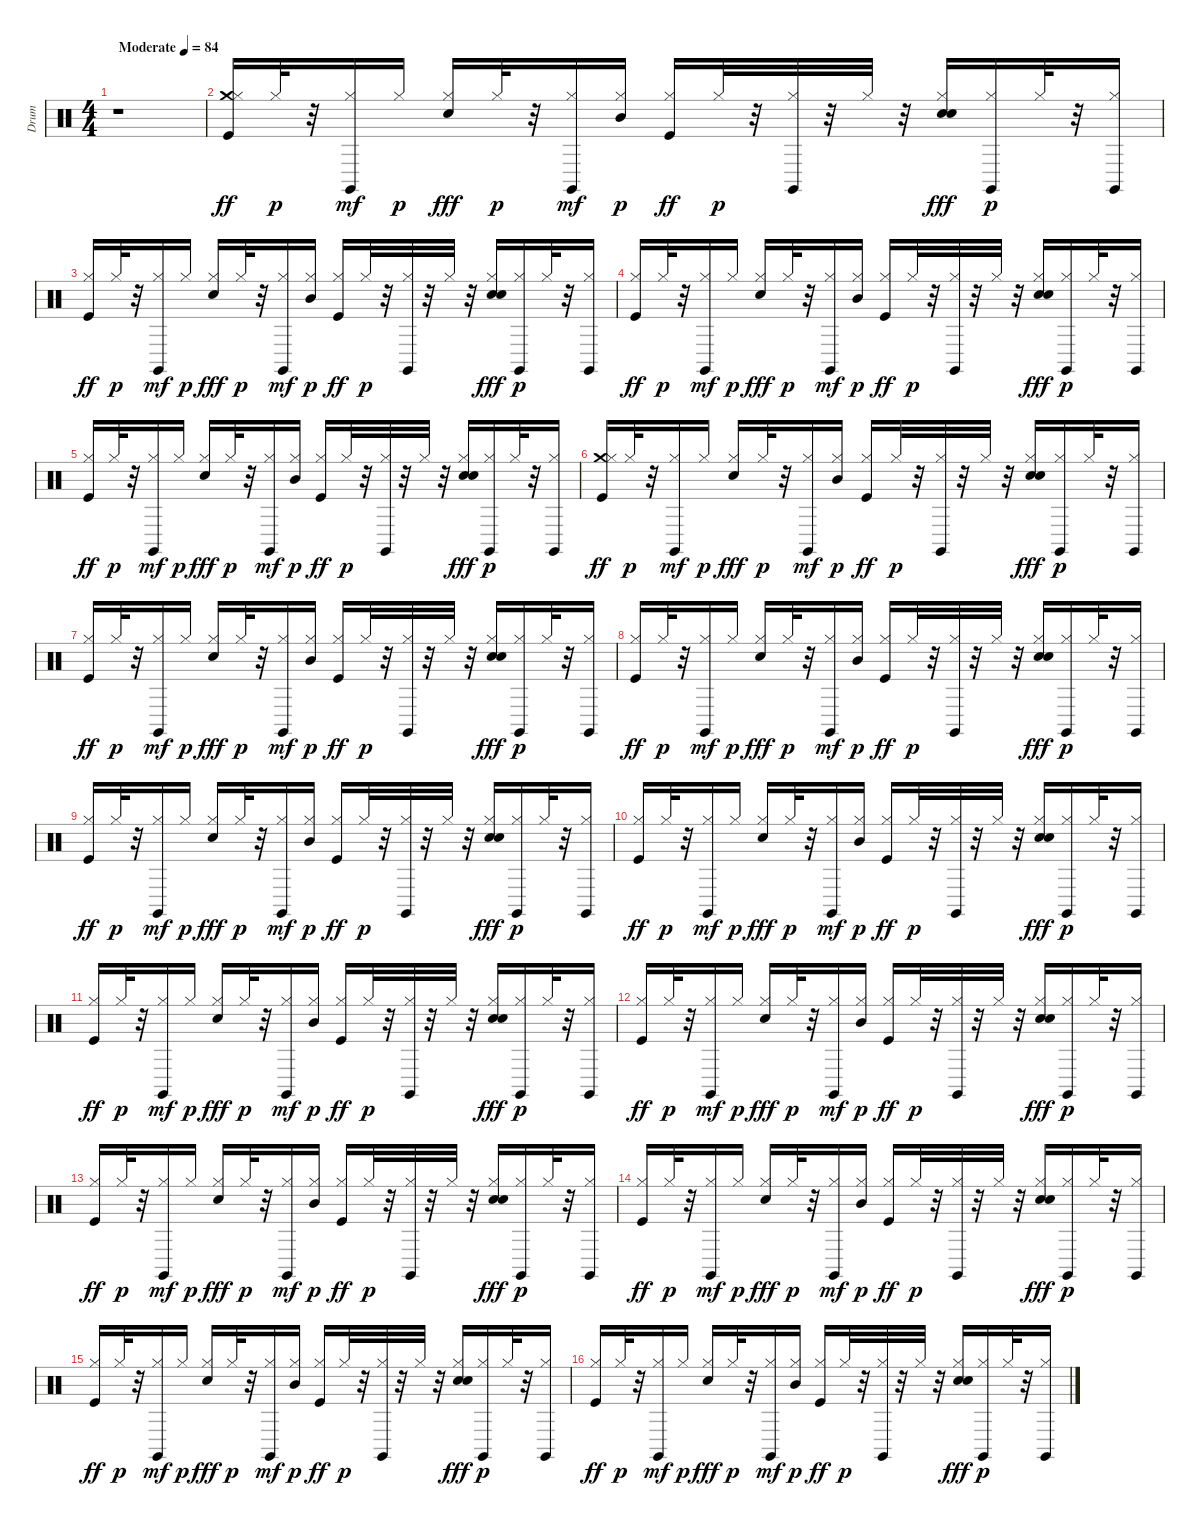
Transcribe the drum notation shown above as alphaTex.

\track ("Drum" "Drum") {instrument percussion}
\staff {score}
\articulation defaults
\ts (4 4)
\tempo (84 "Moderate")
\clef neutral
\ks c
r.1{dy ff} |
("Crash medium (hit)" "Kick (hit)" "Hi-Hat (closed)").16 "Hi-Hat (closed)".32{dy p} r.32 ("Hi-Hat (closed)" "Claves (hit)").16{dy mf} "Hi-Hat (closed)".16{dy p} ("Hi-Hat (closed)" "Snare (hit) 2").16{dy fff} "Hi-Hat (closed)".32{dy p} r.32 ("Hi-Hat (closed)" "Claves (hit)").16{dy mf} ("Hi-Hat (closed)" "Mid Tom (hit)").16{dy p} ("Kick (hit)" "Hi-Hat (closed)").16{dy ff} "Hi-Hat (closed)".32{dy p} r.32 ("Hi-Hat (closed)" "Claves (hit)").32 r.32 "Hi-Hat (closed)".32 r.32 ("Hi-Hat (closed)" "Snare (hit) 2" "Hand Clap (hit)").16{dy fff} ("Hi-Hat (closed)" "Claves (hit)").16{dy p} "Hi-Hat (closed)".32 r.32 ("Hi-Hat (closed)" "Claves (hit)").16 |
("Kick (hit)" "Hi-Hat (closed)").16{dy ff} "Hi-Hat (closed)".32{dy p} r.32 ("Hi-Hat (closed)" "Claves (hit)").16{dy mf} "Hi-Hat (closed)".16{dy p} ("Hi-Hat (closed)" "Snare (hit) 2").16{dy fff} "Hi-Hat (closed)".32{dy p} r.32 ("Hi-Hat (closed)" "Claves (hit)").16{dy mf} ("Hi-Hat (closed)" "Mid Tom (hit)").16{dy p} ("Kick (hit)" "Hi-Hat (closed)").16{dy ff} "Hi-Hat (closed)".32{dy p} r.32 ("Hi-Hat (closed)" "Claves (hit)").32 r.32 "Hi-Hat (closed)".32 r.32 ("Hi-Hat (closed)" "Snare (hit) 2" "Hand Clap (hit)").16{dy fff} ("Hi-Hat (closed)" "Claves (hit)").16{dy p} "Hi-Hat (closed)".32 r.32 ("Hi-Hat (closed)" "Claves (hit)").16 |
("Kick (hit)" "Hi-Hat (closed)").16{dy ff} "Hi-Hat (closed)".32{dy p} r.32 ("Hi-Hat (closed)" "Claves (hit)").16{dy mf} "Hi-Hat (closed)".16{dy p} ("Hi-Hat (closed)" "Snare (hit) 2").16{dy fff} "Hi-Hat (closed)".32{dy p} r.32 ("Hi-Hat (closed)" "Claves (hit)").16{dy mf} ("Hi-Hat (closed)" "Mid Tom (hit)").16{dy p} ("Kick (hit)" "Hi-Hat (closed)").16{dy ff} "Hi-Hat (closed)".32{dy p} r.32 ("Hi-Hat (closed)" "Claves (hit)").32 r.32 "Hi-Hat (closed)".32 r.32 ("Hi-Hat (closed)" "Snare (hit) 2" "Hand Clap (hit)").16{dy fff} ("Hi-Hat (closed)" "Claves (hit)").16{dy p} "Hi-Hat (closed)".32 r.32 ("Hi-Hat (closed)" "Claves (hit)").16 |
("Kick (hit)" "Hi-Hat (closed)").16{dy ff} "Hi-Hat (closed)".32{dy p} r.32 ("Hi-Hat (closed)" "Claves (hit)").16{dy mf} "Hi-Hat (closed)".16{dy p} ("Hi-Hat (closed)" "Snare (hit) 2").16{dy fff} "Hi-Hat (closed)".32{dy p} r.32 ("Hi-Hat (closed)" "Claves (hit)").16{dy mf} ("Hi-Hat (closed)" "Mid Tom (hit)").16{dy p} ("Kick (hit)" "Hi-Hat (closed)").16{dy ff} "Hi-Hat (closed)".32{dy p} r.32 ("Hi-Hat (closed)" "Claves (hit)").32 r.32 "Hi-Hat (closed)".32 r.32 ("Hi-Hat (closed)" "Snare (hit) 2" "Hand Clap (hit)").16{dy fff} ("Hi-Hat (closed)" "Claves (hit)").16{dy p} "Hi-Hat (closed)".32 r.32 ("Hi-Hat (closed)" "Claves (hit)").16 |
("Crash medium (hit)" "Kick (hit)" "Hi-Hat (closed)").16{dy ff} "Hi-Hat (closed)".32{dy p} r.32 ("Hi-Hat (closed)" "Claves (hit)").16{dy mf} "Hi-Hat (closed)".16{dy p} ("Hi-Hat (closed)" "Snare (hit) 2").16{dy fff} "Hi-Hat (closed)".32{dy p} r.32 ("Hi-Hat (closed)" "Claves (hit)").16{dy mf} ("Hi-Hat (closed)" "Mid Tom (hit)").16{dy p} ("Kick (hit)" "Hi-Hat (closed)").16{dy ff} "Hi-Hat (closed)".32{dy p} r.32 ("Hi-Hat (closed)" "Claves (hit)").32 r.32 "Hi-Hat (closed)".32 r.32 ("Hi-Hat (closed)" "Snare (hit) 2" "Hand Clap (hit)").16{dy fff} ("Hi-Hat (closed)" "Claves (hit)").16{dy p} "Hi-Hat (closed)".32 r.32 ("Hi-Hat (closed)" "Claves (hit)").16 |
("Kick (hit)" "Hi-Hat (closed)").16{dy ff} "Hi-Hat (closed)".32{dy p} r.32 ("Hi-Hat (closed)" "Claves (hit)").16{dy mf} "Hi-Hat (closed)".16{dy p} ("Hi-Hat (closed)" "Snare (hit) 2").16{dy fff} "Hi-Hat (closed)".32{dy p} r.32 ("Hi-Hat (closed)" "Claves (hit)").16{dy mf} ("Hi-Hat (closed)" "Mid Tom (hit)").16{dy p} ("Kick (hit)" "Hi-Hat (closed)").16{dy ff} "Hi-Hat (closed)".32{dy p} r.32 ("Hi-Hat (closed)" "Claves (hit)").32 r.32 "Hi-Hat (closed)".32 r.32 ("Hi-Hat (closed)" "Snare (hit) 2" "Hand Clap (hit)").16{dy fff} ("Hi-Hat (closed)" "Claves (hit)").16{dy p} "Hi-Hat (closed)".32 r.32 ("Hi-Hat (closed)" "Claves (hit)").16 |
("Kick (hit)" "Hi-Hat (closed)").16{dy ff} "Hi-Hat (closed)".32{dy p} r.32 ("Hi-Hat (closed)" "Claves (hit)").16{dy mf} "Hi-Hat (closed)".16{dy p} ("Hi-Hat (closed)" "Snare (hit) 2").16{dy fff} "Hi-Hat (closed)".32{dy p} r.32 ("Hi-Hat (closed)" "Claves (hit)").16{dy mf} ("Hi-Hat (closed)" "Mid Tom (hit)").16{dy p} ("Kick (hit)" "Hi-Hat (closed)").16{dy ff} "Hi-Hat (closed)".32{dy p} r.32 ("Hi-Hat (closed)" "Claves (hit)").32 r.32 "Hi-Hat (closed)".32 r.32 ("Hi-Hat (closed)" "Snare (hit) 2" "Hand Clap (hit)").16{dy fff} ("Hi-Hat (closed)" "Claves (hit)").16{dy p} "Hi-Hat (closed)".32 r.32 ("Hi-Hat (closed)" "Claves (hit)").16 |
("Kick (hit)" "Hi-Hat (closed)").16{dy ff} "Hi-Hat (closed)".32{dy p} r.32 ("Hi-Hat (closed)" "Claves (hit)").16{dy mf} "Hi-Hat (closed)".16{dy p} ("Hi-Hat (closed)" "Snare (hit) 2").16{dy fff} "Hi-Hat (closed)".32{dy p} r.32 ("Hi-Hat (closed)" "Claves (hit)").16{dy mf} ("Hi-Hat (closed)" "Mid Tom (hit)").16{dy p} ("Kick (hit)" "Hi-Hat (closed)").16{dy ff} "Hi-Hat (closed)".32{dy p} r.32 ("Hi-Hat (closed)" "Claves (hit)").32 r.32 "Hi-Hat (closed)".32 r.32 ("Hi-Hat (closed)" "Snare (hit) 2" "Hand Clap (hit)").16{dy fff} ("Hi-Hat (closed)" "Claves (hit)").16{dy p} "Hi-Hat (closed)".32 r.32 ("Hi-Hat (closed)" "Claves (hit)").16 |
("Kick (hit)" "Hi-Hat (closed)").16{dy ff} "Hi-Hat (closed)".32{dy p} r.32 ("Hi-Hat (closed)" "Claves (hit)").16{dy mf} "Hi-Hat (closed)".16{dy p} ("Hi-Hat (closed)" "Snare (hit) 2").16{dy fff} "Hi-Hat (closed)".32{dy p} r.32 ("Hi-Hat (closed)" "Claves (hit)").16{dy mf} ("Hi-Hat (closed)" "Mid Tom (hit)").16{dy p} ("Kick (hit)" "Hi-Hat (closed)").16{dy ff} "Hi-Hat (closed)".32{dy p} r.32 ("Hi-Hat (closed)" "Claves (hit)").32 r.32 "Hi-Hat (closed)".32 r.32 ("Hi-Hat (closed)" "Snare (hit) 2" "Hand Clap (hit)").16{dy fff} ("Hi-Hat (closed)" "Claves (hit)").16{dy p} "Hi-Hat (closed)".32 r.32 ("Hi-Hat (closed)" "Claves (hit)").16 |
("Kick (hit)" "Hi-Hat (closed)").16{dy ff} "Hi-Hat (closed)".32{dy p} r.32 ("Hi-Hat (closed)" "Claves (hit)").16{dy mf} "Hi-Hat (closed)".16{dy p} ("Hi-Hat (closed)" "Snare (hit) 2").16{dy fff} "Hi-Hat (closed)".32{dy p} r.32 ("Hi-Hat (closed)" "Claves (hit)").16{dy mf} ("Hi-Hat (closed)" "Mid Tom (hit)").16{dy p} ("Kick (hit)" "Hi-Hat (closed)").16{dy ff} "Hi-Hat (closed)".32{dy p} r.32 ("Hi-Hat (closed)" "Claves (hit)").32 r.32 "Hi-Hat (closed)".32 r.32 ("Hi-Hat (closed)" "Snare (hit) 2" "Hand Clap (hit)").16{dy fff} ("Hi-Hat (closed)" "Claves (hit)").16{dy p} "Hi-Hat (closed)".32 r.32 ("Hi-Hat (closed)" "Claves (hit)").16 |
("Kick (hit)" "Hi-Hat (closed)").16{dy ff} "Hi-Hat (closed)".32{dy p} r.32 ("Hi-Hat (closed)" "Claves (hit)").16{dy mf} "Hi-Hat (closed)".16{dy p} ("Hi-Hat (closed)" "Snare (hit) 2").16{dy fff} "Hi-Hat (closed)".32{dy p} r.32 ("Hi-Hat (closed)" "Claves (hit)").16{dy mf} ("Hi-Hat (closed)" "Mid Tom (hit)").16{dy p} ("Kick (hit)" "Hi-Hat (closed)").16{dy ff} "Hi-Hat (closed)".32{dy p} r.32 ("Hi-Hat (closed)" "Claves (hit)").32 r.32 "Hi-Hat (closed)".32 r.32 ("Hi-Hat (closed)" "Snare (hit) 2" "Hand Clap (hit)").16{dy fff} ("Hi-Hat (closed)" "Claves (hit)").16{dy p} "Hi-Hat (closed)".32 r.32 ("Hi-Hat (closed)" "Claves (hit)").16 |
("Kick (hit)" "Hi-Hat (closed)").16{dy ff} "Hi-Hat (closed)".32{dy p} r.32 ("Hi-Hat (closed)" "Claves (hit)").16{dy mf} "Hi-Hat (closed)".16{dy p} ("Hi-Hat (closed)" "Snare (hit) 2").16{dy fff} "Hi-Hat (closed)".32{dy p} r.32 ("Hi-Hat (closed)" "Claves (hit)").16{dy mf} ("Hi-Hat (closed)" "Mid Tom (hit)").16{dy p} ("Kick (hit)" "Hi-Hat (closed)").16{dy ff} "Hi-Hat (closed)".32{dy p} r.32 ("Hi-Hat (closed)" "Claves (hit)").32 r.32 "Hi-Hat (closed)".32 r.32 ("Hi-Hat (closed)" "Snare (hit) 2" "Hand Clap (hit)").16{dy fff} ("Hi-Hat (closed)" "Claves (hit)").16{dy p} "Hi-Hat (closed)".32 r.32 ("Hi-Hat (closed)" "Claves (hit)").16 |
("Kick (hit)" "Hi-Hat (closed)").16{dy ff} "Hi-Hat (closed)".32{dy p} r.32 ("Hi-Hat (closed)" "Claves (hit)").16{dy mf} "Hi-Hat (closed)".16{dy p} ("Hi-Hat (closed)" "Snare (hit) 2").16{dy fff} "Hi-Hat (closed)".32{dy p} r.32 ("Hi-Hat (closed)" "Claves (hit)").16{dy mf} ("Hi-Hat (closed)" "Mid Tom (hit)").16{dy p} ("Kick (hit)" "Hi-Hat (closed)").16{dy ff} "Hi-Hat (closed)".32{dy p} r.32 ("Hi-Hat (closed)" "Claves (hit)").32 r.32 "Hi-Hat (closed)".32 r.32 ("Hi-Hat (closed)" "Snare (hit) 2" "Hand Clap (hit)").16{dy fff} ("Hi-Hat (closed)" "Claves (hit)").16{dy p} "Hi-Hat (closed)".32 r.32 ("Hi-Hat (closed)" "Claves (hit)").16 |
("Kick (hit)" "Hi-Hat (closed)").16{dy ff} "Hi-Hat (closed)".32{dy p} r.32 ("Hi-Hat (closed)" "Claves (hit)").16{dy mf} "Hi-Hat (closed)".16{dy p} ("Hi-Hat (closed)" "Snare (hit) 2").16{dy fff} "Hi-Hat (closed)".32{dy p} r.32 ("Hi-Hat (closed)" "Claves (hit)").16{dy mf} ("Hi-Hat (closed)" "Mid Tom (hit)").16{dy p} ("Kick (hit)" "Hi-Hat (closed)").16{dy ff} "Hi-Hat (closed)".32{dy p} r.32 ("Hi-Hat (closed)" "Claves (hit)").32 r.32 "Hi-Hat (closed)".32 r.32 ("Hi-Hat (closed)" "Snare (hit) 2" "Hand Clap (hit)").16{dy fff} ("Hi-Hat (closed)" "Claves (hit)").16{dy p} "Hi-Hat (closed)".32 r.32 ("Hi-Hat (closed)" "Claves (hit)").16 |
("Kick (hit)" "Hi-Hat (closed)").16{dy ff} "Hi-Hat (closed)".32{dy p} r.32 ("Hi-Hat (closed)" "Claves (hit)").16{dy mf} "Hi-Hat (closed)".16{dy p} ("Hi-Hat (closed)" "Snare (hit) 2").16{dy fff} "Hi-Hat (closed)".32{dy p} r.32 ("Hi-Hat (closed)" "Claves (hit)").16{dy mf} ("Hi-Hat (closed)" "Mid Tom (hit)").16{dy p} ("Kick (hit)" "Hi-Hat (closed)").16{dy ff} "Hi-Hat (closed)".32{dy p} r.32 ("Hi-Hat (closed)" "Claves (hit)").32 r.32 "Hi-Hat (closed)".32 r.32 ("Hi-Hat (closed)" "Snare (hit) 2" "Hand Clap (hit)").16{dy fff} ("Hi-Hat (closed)" "Claves (hit)").16{dy p} "Hi-Hat (closed)".32 r.32 ("Hi-Hat (closed)" "Claves (hit)").16
